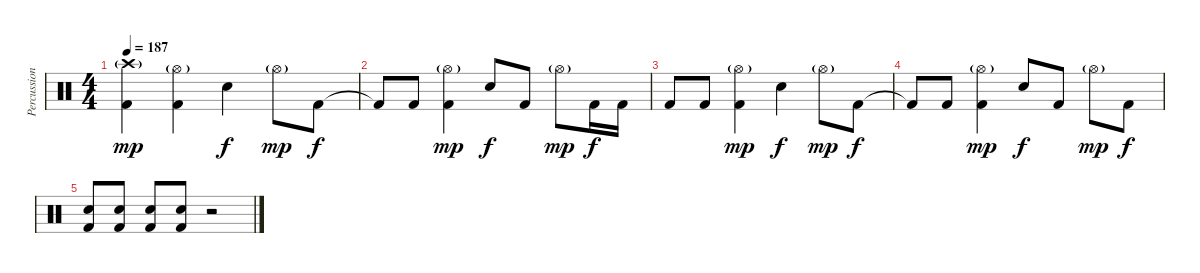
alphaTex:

\track ("Percussion" "Percussion") {instrument percussion}
\staff {score}
\articulation defaults
\ts (4 4)
\tempo 187
\clef neutral
\ks c
("Kick (hit) 2" "Crash high (hit)"{g}).4{dy mp} ("Kick (hit) 2" "Hi-Hat (open)"{g}).4 "Snare (hit) 2".4{dy f} "Hi-Hat (open)"{g}.8{dy mp} "Kick (hit) 2".8{dy f} |
"Kick (hit) 2"{t}.8 "Kick (hit) 2".8 ("Kick (hit) 2" "Hi-Hat (open)"{g}).4{dy mp} "Snare (hit) 2".8{dy f} "Kick (hit) 2".8 "Hi-Hat (open)"{g}.8{dy mp} "Kick (hit) 2".16{dy f} "Kick (hit) 2".16 |
"Kick (hit) 2".8 "Kick (hit) 2".8 ("Kick (hit) 2" "Hi-Hat (open)"{g}).4{dy mp} "Snare (hit) 2".4{dy f} "Hi-Hat (open)"{g}.8{dy mp} "Kick (hit) 2".8{dy f} |
"Kick (hit) 2"{t}.8 "Kick (hit) 2".8 ("Kick (hit) 2" "Hi-Hat (open)"{g}).4{dy mp} "Snare (hit) 2".8{dy f} "Kick (hit) 2".8 "Hi-Hat (open)"{g}.8{dy mp} "Kick (hit) 2".8{dy f} |
("Snare (hit) 2" "Kick (hit) 2").8 ("Snare (hit) 2" "Kick (hit) 2").8 ("Snare (hit) 2" "Kick (hit) 2").8 ("Snare (hit) 2" "Kick (hit) 2").8 r.2
